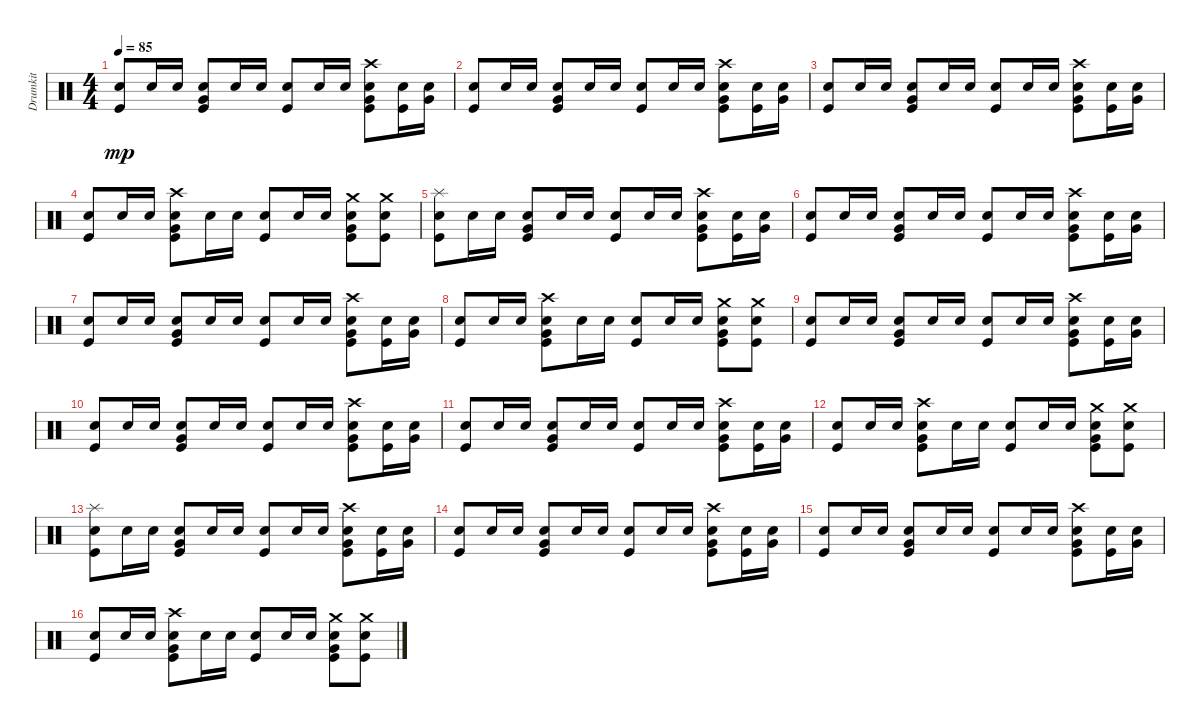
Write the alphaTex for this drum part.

\track ("Drumkit" "Drumkit") {instrument percussion}
\staff {score}
\articulation defaults
\ts (4 4)
\tempo 85
\clef neutral
\ks c
("Snare (hit) 2" "Kick (hit)").8{dy mp} "Snare (hit) 2".16 "Snare (hit) 2".16 ("Very Low Tom (hit)" "Snare (hit) 2" "Kick (hit)").8 "Snare (hit) 2".16 "Snare (hit) 2".16 ("Snare (hit) 2" "Kick (hit)").8 "Snare (hit) 2".16 "Snare (hit) 2".16 ("Snare (hit) 2" "Very Low Tom (hit)" "Crash high (hit)" "Kick (hit)").8 ("Snare (hit) 2" "Kick (hit)").16 ("Snare (hit) 2" "Very Low Tom (hit)").16 |
("Snare (hit) 2" "Kick (hit)").8 "Snare (hit) 2".16 "Snare (hit) 2".16 ("Very Low Tom (hit)" "Snare (hit) 2" "Kick (hit)").8 "Snare (hit) 2".16 "Snare (hit) 2".16 ("Snare (hit) 2" "Kick (hit)").8 "Snare (hit) 2".16 "Snare (hit) 2".16 ("Snare (hit) 2" "Very Low Tom (hit)" "Crash high (hit)" "Kick (hit)").8 ("Snare (hit) 2" "Kick (hit)").16 ("Snare (hit) 2" "Very Low Tom (hit)").16 |
("Snare (hit) 2" "Kick (hit)").8 "Snare (hit) 2".16 "Snare (hit) 2".16 ("Very Low Tom (hit)" "Snare (hit) 2" "Kick (hit)").8 "Snare (hit) 2".16 "Snare (hit) 2".16 ("Snare (hit) 2" "Kick (hit)").8 "Snare (hit) 2".16 "Snare (hit) 2".16 ("Snare (hit) 2" "Very Low Tom (hit)" "Crash high (hit)" "Kick (hit)").8 ("Snare (hit) 2" "Kick (hit)").16 ("Snare (hit) 2" "Very Low Tom (hit)").16 |
("Snare (hit) 2" "Kick (hit)").8 "Snare (hit) 2".16 "Snare (hit) 2".16 ("Very Low Tom (hit)" "Snare (hit) 2" "Kick (hit)" "Crash high (hit)").8 "Snare (hit) 2".16 "Snare (hit) 2".16 ("Snare (hit) 2" "Kick (hit)").8 "Snare (hit) 2".16 "Snare (hit) 2".16 ("Snare (hit) 2" "Very Low Tom (hit)" "Kick (hit)" "Crash medium (hit)").8 ("Snare (hit) 2" "Kick (hit)" "Crash medium (hit)").8 |
("Snare (hit) 2" "Kick (hit)" "Splash (hit)").8 "Snare (hit) 2".16 "Snare (hit) 2".16 ("Very Low Tom (hit)" "Snare (hit) 2" "Kick (hit)").8 "Snare (hit) 2".16 "Snare (hit) 2".16 ("Snare (hit) 2" "Kick (hit)").8 "Snare (hit) 2".16 "Snare (hit) 2".16 ("Snare (hit) 2" "Very Low Tom (hit)" "Crash high (hit)" "Kick (hit)").8 ("Snare (hit) 2" "Kick (hit)").16 ("Snare (hit) 2" "Very Low Tom (hit)").16 |
("Snare (hit) 2" "Kick (hit)").8 "Snare (hit) 2".16 "Snare (hit) 2".16 ("Very Low Tom (hit)" "Snare (hit) 2" "Kick (hit)").8 "Snare (hit) 2".16 "Snare (hit) 2".16 ("Snare (hit) 2" "Kick (hit)").8 "Snare (hit) 2".16 "Snare (hit) 2".16 ("Snare (hit) 2" "Very Low Tom (hit)" "Crash high (hit)" "Kick (hit)").8 ("Snare (hit) 2" "Kick (hit)").16 ("Snare (hit) 2" "Very Low Tom (hit)").16 |
("Snare (hit) 2" "Kick (hit)").8 "Snare (hit) 2".16 "Snare (hit) 2".16 ("Very Low Tom (hit)" "Snare (hit) 2" "Kick (hit)").8 "Snare (hit) 2".16 "Snare (hit) 2".16 ("Snare (hit) 2" "Kick (hit)").8 "Snare (hit) 2".16 "Snare (hit) 2".16 ("Snare (hit) 2" "Very Low Tom (hit)" "Crash high (hit)" "Kick (hit)").8 ("Snare (hit) 2" "Kick (hit)").16 ("Snare (hit) 2" "Very Low Tom (hit)").16 |
("Snare (hit) 2" "Kick (hit)").8 "Snare (hit) 2".16 "Snare (hit) 2".16 ("Very Low Tom (hit)" "Snare (hit) 2" "Kick (hit)" "Crash high (hit)").8 "Snare (hit) 2".16 "Snare (hit) 2".16 ("Snare (hit) 2" "Kick (hit)").8 "Snare (hit) 2".16 "Snare (hit) 2".16 ("Snare (hit) 2" "Very Low Tom (hit)" "Kick (hit)" "Crash medium (hit)").8 ("Snare (hit) 2" "Kick (hit)" "Crash medium (hit)").8 |
("Snare (hit) 2" "Kick (hit)").8 "Snare (hit) 2".16 "Snare (hit) 2".16 ("Very Low Tom (hit)" "Snare (hit) 2" "Kick (hit)").8 "Snare (hit) 2".16 "Snare (hit) 2".16 ("Snare (hit) 2" "Kick (hit)").8 "Snare (hit) 2".16 "Snare (hit) 2".16 ("Snare (hit) 2" "Very Low Tom (hit)" "Crash high (hit)" "Kick (hit)").8 ("Snare (hit) 2" "Kick (hit)").16 ("Snare (hit) 2" "Very Low Tom (hit)").16 |
("Snare (hit) 2" "Kick (hit)").8 "Snare (hit) 2".16 "Snare (hit) 2".16 ("Very Low Tom (hit)" "Snare (hit) 2" "Kick (hit)").8 "Snare (hit) 2".16 "Snare (hit) 2".16 ("Snare (hit) 2" "Kick (hit)").8 "Snare (hit) 2".16 "Snare (hit) 2".16 ("Snare (hit) 2" "Very Low Tom (hit)" "Crash high (hit)" "Kick (hit)").8 ("Snare (hit) 2" "Kick (hit)").16 ("Snare (hit) 2" "Very Low Tom (hit)").16 |
("Snare (hit) 2" "Kick (hit)").8 "Snare (hit) 2".16 "Snare (hit) 2".16 ("Very Low Tom (hit)" "Snare (hit) 2" "Kick (hit)").8 "Snare (hit) 2".16 "Snare (hit) 2".16 ("Snare (hit) 2" "Kick (hit)").8 "Snare (hit) 2".16 "Snare (hit) 2".16 ("Snare (hit) 2" "Very Low Tom (hit)" "Crash high (hit)" "Kick (hit)").8 ("Snare (hit) 2" "Kick (hit)").16 ("Snare (hit) 2" "Very Low Tom (hit)").16 |
("Snare (hit) 2" "Kick (hit)").8 "Snare (hit) 2".16 "Snare (hit) 2".16 ("Very Low Tom (hit)" "Snare (hit) 2" "Kick (hit)" "Crash high (hit)").8 "Snare (hit) 2".16 "Snare (hit) 2".16 ("Snare (hit) 2" "Kick (hit)").8 "Snare (hit) 2".16 "Snare (hit) 2".16 ("Snare (hit) 2" "Very Low Tom (hit)" "Kick (hit)" "Crash medium (hit)").8 ("Snare (hit) 2" "Kick (hit)" "Crash medium (hit)").8 |
("Snare (hit) 2" "Kick (hit)" "Splash (hit)").8 "Snare (hit) 2".16 "Snare (hit) 2".16 ("Very Low Tom (hit)" "Snare (hit) 2" "Kick (hit)").8 "Snare (hit) 2".16 "Snare (hit) 2".16 ("Snare (hit) 2" "Kick (hit)").8 "Snare (hit) 2".16 "Snare (hit) 2".16 ("Snare (hit) 2" "Very Low Tom (hit)" "Crash high (hit)" "Kick (hit)").8 ("Snare (hit) 2" "Kick (hit)").16 ("Snare (hit) 2" "Very Low Tom (hit)").16 |
("Snare (hit) 2" "Kick (hit)").8 "Snare (hit) 2".16 "Snare (hit) 2".16 ("Very Low Tom (hit)" "Snare (hit) 2" "Kick (hit)").8 "Snare (hit) 2".16 "Snare (hit) 2".16 ("Snare (hit) 2" "Kick (hit)").8 "Snare (hit) 2".16 "Snare (hit) 2".16 ("Snare (hit) 2" "Very Low Tom (hit)" "Crash high (hit)" "Kick (hit)").8 ("Snare (hit) 2" "Kick (hit)").16 ("Snare (hit) 2" "Very Low Tom (hit)").16 |
("Snare (hit) 2" "Kick (hit)").8 "Snare (hit) 2".16 "Snare (hit) 2".16 ("Very Low Tom (hit)" "Snare (hit) 2" "Kick (hit)").8 "Snare (hit) 2".16 "Snare (hit) 2".16 ("Snare (hit) 2" "Kick (hit)").8 "Snare (hit) 2".16 "Snare (hit) 2".16 ("Snare (hit) 2" "Very Low Tom (hit)" "Crash high (hit)" "Kick (hit)").8 ("Snare (hit) 2" "Kick (hit)").16 ("Snare (hit) 2" "Very Low Tom (hit)").16 |
("Snare (hit) 2" "Kick (hit)").8 "Snare (hit) 2".16 "Snare (hit) 2".16 ("Very Low Tom (hit)" "Snare (hit) 2" "Kick (hit)" "Crash high (hit)").8 "Snare (hit) 2".16 "Snare (hit) 2".16 ("Snare (hit) 2" "Kick (hit)").8 "Snare (hit) 2".16 "Snare (hit) 2".16 ("Snare (hit) 2" "Very Low Tom (hit)" "Kick (hit)" "Crash medium (hit)").8 ("Snare (hit) 2" "Kick (hit)" "Crash medium (hit)").8
